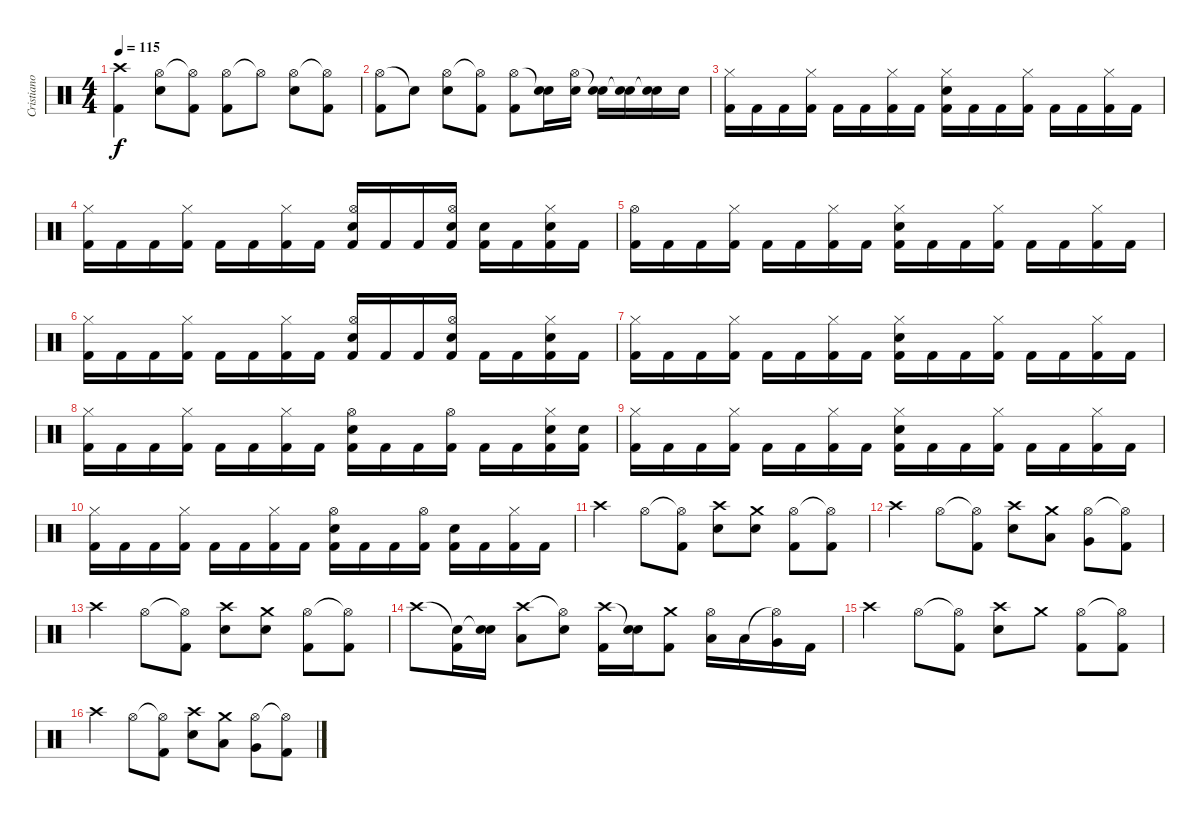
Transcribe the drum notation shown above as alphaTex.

\track ("Cristiano Mozzati" "Cristiano ") {instrument percussion}
\staff {score}
\articulation defaults
\ts (4 4)
\tempo 115
\clef neutral
\ks c
("Crash high (hit)" "Kick (hit) 2").4{dy f} ("Hi-Hat (open)" "Electric Snare (hit)").8 ("Hi-Hat (open)"{t} "Kick (hit) 2").8 ("Hi-Hat (open)" "Kick (hit) 2").8 "Hi-Hat (open)"{t}.8 ("Hi-Hat (open)" "Electric Snare (hit)").8 ("Hi-Hat (open)"{t} "Kick (hit) 2").8 |
("Hi-Hat (open)" "Kick (hit) 2").8 "Snare (hit)"{t}.8 ("Hi-Hat (open)" "Electric Snare (hit)").8 ("Hi-Hat (open)"{t} "Kick (hit) 2").8 ("Hi-Hat (open)" "Kick (hit) 2").8 ("Snare (hit)"{t} "Electric Snare (hit)").16 ("Hi-Hat (open)" "Electric Snare (hit)").16 ("Snare (hit)"{t} "Electric Snare (hit)").16 ("Snare (hit)"{t} "Electric Snare (hit)").16 ("Snare (hit)"{t} "Electric Snare (hit)").16 "Electric Snare (hit)".16 |
("Hi-Hat (closed)" "Kick (hit) 2").16 "Kick (hit) 2".16 "Kick (hit) 2".16 ("Hi-Hat (closed)" "Kick (hit) 2").16 "Kick (hit) 2".16 "Kick (hit) 2".16 ("Hi-Hat (closed)" "Kick (hit) 2").16 "Kick (hit) 2".16 ("Hi-Hat (closed)" "Electric Snare (hit)" "Kick (hit) 2").16 "Kick (hit) 2".16 "Kick (hit) 2".16 ("Hi-Hat (closed)" "Kick (hit) 2").16 "Kick (hit) 2".16 "Kick (hit) 2".16 ("Hi-Hat (closed)" "Kick (hit) 2").16 "Kick (hit) 2".16 |
("Hi-Hat (closed)" "Kick (hit) 2").16 "Kick (hit) 2".16 "Kick (hit) 2".16 ("Hi-Hat (closed)" "Kick (hit) 2").16 "Kick (hit) 2".16 "Kick (hit) 2".16 ("Hi-Hat (closed)" "Kick (hit) 2").16 "Kick (hit) 2".16 ("Hi-Hat (open)" "Electric Snare (hit)" "Kick (hit) 2").16 "Kick (hit) 2".16 "Kick (hit) 2".16 ("Hi-Hat (open)" "Electric Snare (hit)" "Kick (hit) 2").16 ("Electric Snare (hit)" "Kick (hit) 2").16 "Kick (hit) 2".16 ("Hi-Hat (closed)" "Electric Snare (hit)" "Kick (hit) 2").16 "Kick (hit) 2".16 |
("Hi-Hat (open)" "Kick (hit) 2").16 "Kick (hit) 2".16 "Kick (hit) 2".16 ("Hi-Hat (closed)" "Kick (hit) 2").16 "Kick (hit) 2".16 "Kick (hit) 2".16 ("Hi-Hat (closed)" "Kick (hit) 2").16 "Kick (hit) 2".16 ("Hi-Hat (closed)" "Electric Snare (hit)" "Kick (hit) 2").16 "Kick (hit) 2".16 "Kick (hit) 2".16 ("Hi-Hat (closed)" "Kick (hit) 2").16 "Kick (hit) 2".16 "Kick (hit) 2".16 ("Hi-Hat (closed)" "Kick (hit) 2").16 "Kick (hit) 2".16 |
("Hi-Hat (closed)" "Kick (hit) 2").16 "Kick (hit) 2".16 "Kick (hit) 2".16 ("Hi-Hat (closed)" "Kick (hit) 2").16 "Kick (hit) 2".16 "Kick (hit) 2".16 ("Hi-Hat (closed)" "Kick (hit) 2").16 "Kick (hit) 2".16 ("Hi-Hat (open)" "Electric Snare (hit)" "Kick (hit) 2").16 "Kick (hit) 2".16 "Kick (hit) 2".16 ("Hi-Hat (open)" "Electric Snare (hit)" "Kick (hit) 2").16 "Kick (hit) 2".16 "Kick (hit) 2".16 ("Hi-Hat (closed)" "Electric Snare (hit)" "Kick (hit) 2").16 "Kick (hit) 2".16 |
("Hi-Hat (closed)" "Kick (hit) 2").16 "Kick (hit) 2".16 "Kick (hit) 2".16 ("Hi-Hat (closed)" "Kick (hit) 2").16 "Kick (hit) 2".16 "Kick (hit) 2".16 ("Hi-Hat (closed)" "Kick (hit) 2").16 "Kick (hit) 2".16 ("Hi-Hat (closed)" "Electric Snare (hit)" "Kick (hit) 2").16 "Kick (hit) 2".16 "Kick (hit) 2".16 ("Hi-Hat (closed)" "Kick (hit) 2").16 "Kick (hit) 2".16 "Kick (hit) 2".16 ("Hi-Hat (closed)" "Kick (hit) 2").16 "Kick (hit) 2".16 |
("Hi-Hat (closed)" "Kick (hit) 2").16 "Kick (hit) 2".16 "Kick (hit) 2".16 ("Hi-Hat (closed)" "Kick (hit) 2").16 "Kick (hit) 2".16 "Kick (hit) 2".16 ("Hi-Hat (closed)" "Kick (hit) 2").16 "Kick (hit) 2".16 ("Hi-Hat (open)" "Electric Snare (hit)" "Kick (hit) 2").16 "Kick (hit) 2".16 "Kick (hit) 2".16 ("Hi-Hat (open)" "Kick (hit) 2").16 "Kick (hit) 2".16 "Kick (hit) 2".16 ("Hi-Hat (closed)" "Electric Snare (hit)" "Kick (hit) 2").16 ("Electric Snare (hit)" "Kick (hit) 2").16 |
("Hi-Hat (closed)" "Kick (hit) 2").16 "Kick (hit) 2".16 "Kick (hit) 2".16 ("Hi-Hat (closed)" "Kick (hit) 2").16 "Kick (hit) 2".16 "Kick (hit) 2".16 ("Hi-Hat (closed)" "Kick (hit) 2").16 "Kick (hit) 2".16 ("Hi-Hat (closed)" "Electric Snare (hit)" "Kick (hit) 2").16 "Kick (hit) 2".16 "Kick (hit) 2".16 ("Hi-Hat (closed)" "Kick (hit) 2").16 "Kick (hit) 2".16 "Kick (hit) 2".16 ("Hi-Hat (closed)" "Kick (hit) 2").16 "Kick (hit) 2".16 |
("Hi-Hat (closed)" "Kick (hit) 2").16 "Kick (hit) 2".16 "Kick (hit) 2".16 ("Hi-Hat (closed)" "Kick (hit) 2").16 "Kick (hit) 2".16 "Kick (hit) 2".16 ("Hi-Hat (closed)" "Kick (hit) 2").16 "Kick (hit) 2".16 ("Hi-Hat (open)" "Electric Snare (hit)" "Kick (hit) 2").16 "Kick (hit) 2".16 "Kick (hit) 2".16 ("Hi-Hat (open)" "Kick (hit) 2").16 ("Electric Snare (hit)" "Kick (hit) 2").16 "Kick (hit) 2".16 ("Hi-Hat (closed)" "Kick (hit) 2").16 "Kick (hit) 2".16 |
"Crash high (hit)".4 "Hi-Hat (open)".8 ("Hi-Hat (open)"{t} "Kick (hit) 2").8 ("Crash high (hit)" "Electric Snare (hit)").8 ("Crash medium (hit)" "Electric Snare (hit)").8 ("Hi-Hat (open)" "Kick (hit) 2").8 ("Hi-Hat (open)"{t} "Kick (hit) 2").8 |
"Crash high (hit)".4 "Hi-Hat (open)".8 ("Hi-Hat (open)"{t} "Kick (hit) 2").8 ("Crash high (hit)" "Electric Snare (hit)").8 ("Crash medium (hit)" "Low Tom (hit)").8 ("Hi-Hat (open)" "Very Low Tom (hit)").8 ("Hi-Hat (open)"{t} "Kick (hit) 2").8 |
"Crash high (hit)".4 "Hi-Hat (open)".8 ("Hi-Hat (open)"{t} "Kick (hit) 2").8 ("Crash high (hit)" "Electric Snare (hit)").8 ("Crash medium (hit)" "Electric Snare (hit)").8 ("Hi-Hat (open)" "Kick (hit) 2").8 ("Hi-Hat (open)"{t} "Kick (hit) 2").8 |
"Crash high (hit)".8 ("Snare (hit)"{t} "Kick (hit) 2").16 ("Snare (hit)"{t} "Electric Snare (hit)").16 ("Crash high (hit)" "Low Tom (hit)").8 ("Hi-Hat (open)"{t} "Electric Snare (hit)").8 ("Crash high (hit)" "Kick (hit) 2").16 ("Snare (hit)"{t} "Electric Snare (hit)").16 ("Crash medium (hit)" "Kick (hit) 2").8 ("Hi-Hat (open)" "Low Tom (hit)").16 "Low Tom (hit)".16 ("Hi-Hat (open)"{t} "Very Low Tom (hit)").16 "Kick (hit) 2".16 |
"Crash high (hit)".4 "Hi-Hat (open)".8 ("Hi-Hat (open)"{t} "Kick (hit) 2").8 ("Crash high (hit)" "Electric Snare (hit)").8 "Crash medium (hit)".8 ("Hi-Hat (open)" "Kick (hit) 2").8 ("Hi-Hat (open)"{t} "Kick (hit) 2").8 |
"Crash high (hit)".4 "Hi-Hat (open)".8 ("Hi-Hat (open)"{t} "Kick (hit) 2").8 ("Crash high (hit)" "Electric Snare (hit)").8 ("Crash medium (hit)" "Low Tom (hit)").8 ("Hi-Hat (open)" "Very Low Tom (hit)").8 ("Hi-Hat (open)"{t} "Kick (hit) 2").8
